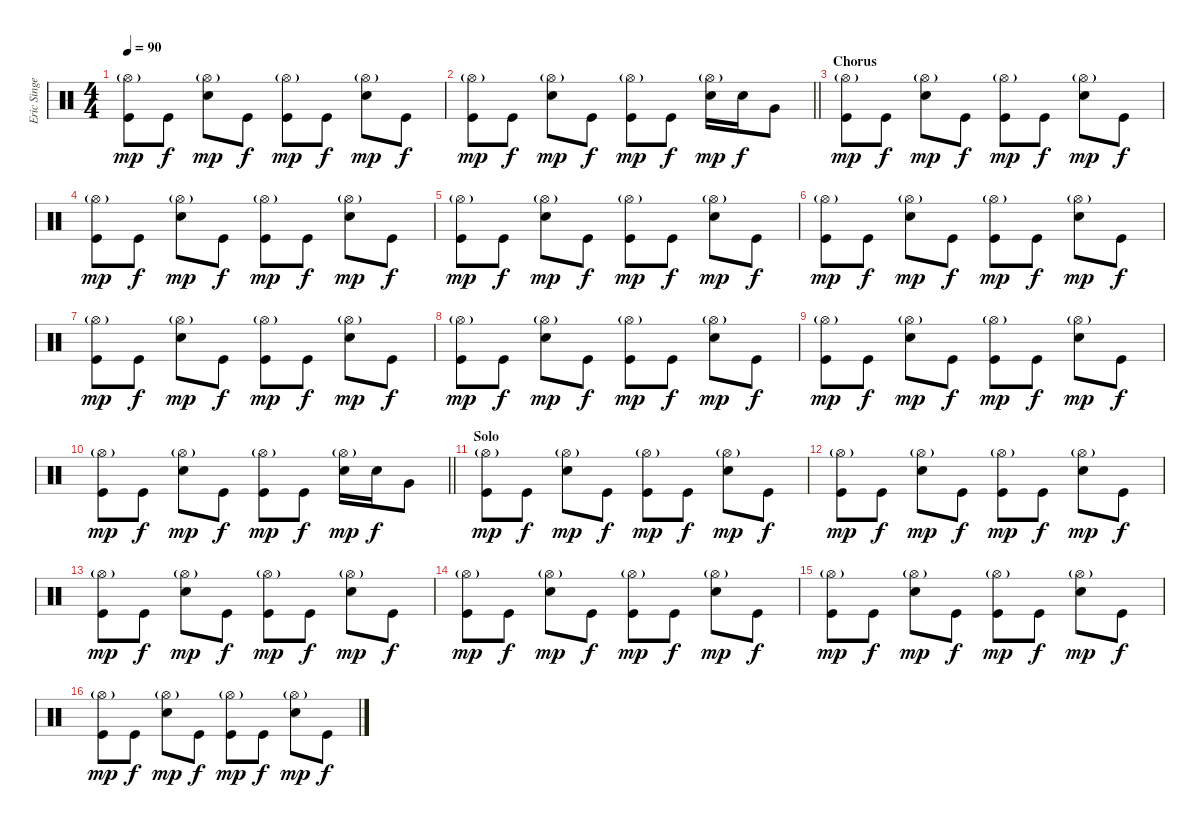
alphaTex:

\track ("Eric Singer (Drums)" "Eric Singe") {instrument percussion}
\staff {score}
\articulation defaults
\ts (4 4)
\tempo 90
\clef neutral
\ks c
("Hi-Hat (open)"{g} "Kick (hit)").8{dy mp} "Kick (hit)".8{dy f} ("Hi-Hat (open)"{g} "Snare (hit) 2").8{dy mp} "Kick (hit)".8{dy f} ("Hi-Hat (open)"{g} "Kick (hit)").8{dy mp} "Kick (hit)".8{dy f} ("Hi-Hat (open)"{g} "Snare (hit) 2").8{dy mp} "Kick (hit)".8{dy f} |
\barLineRight lightlight
("Hi-Hat (open)"{g} "Kick (hit)").8{dy mp} "Kick (hit)".8{dy f} ("Hi-Hat (open)"{g} "Snare (hit) 2").8{dy mp} "Kick (hit)".8{dy f} ("Hi-Hat (open)"{g} "Kick (hit)").8{dy mp} "Kick (hit)".8{dy f} ("Hi-Hat (open)"{g} "Snare (hit) 2").16{dy mp} "Snare (hit) 2".16{dy f} "Very Low Tom (hit)".8 |
\section ("" "Chorus")
("Hi-Hat (open)"{g} "Kick (hit)").8{dy mp} "Kick (hit)".8{dy f} ("Hi-Hat (open)"{g} "Snare (hit) 2").8{dy mp} "Kick (hit)".8{dy f} ("Hi-Hat (open)"{g} "Kick (hit)").8{dy mp} "Kick (hit)".8{dy f} ("Hi-Hat (open)"{g} "Snare (hit) 2").8{dy mp} "Kick (hit)".8{dy f} |
("Hi-Hat (open)"{g} "Kick (hit)").8{dy mp} "Kick (hit)".8{dy f} ("Hi-Hat (open)"{g} "Snare (hit) 2").8{dy mp} "Kick (hit)".8{dy f} ("Hi-Hat (open)"{g} "Kick (hit)").8{dy mp} "Kick (hit)".8{dy f} ("Hi-Hat (open)"{g} "Snare (hit) 2").8{dy mp} "Kick (hit)".8{dy f} |
("Hi-Hat (open)"{g} "Kick (hit)").8{dy mp} "Kick (hit)".8{dy f} ("Hi-Hat (open)"{g} "Snare (hit) 2").8{dy mp} "Kick (hit)".8{dy f} ("Hi-Hat (open)"{g} "Kick (hit)").8{dy mp} "Kick (hit)".8{dy f} ("Hi-Hat (open)"{g} "Snare (hit) 2").8{dy mp} "Kick (hit)".8{dy f} |
("Hi-Hat (open)"{g} "Kick (hit)").8{dy mp} "Kick (hit)".8{dy f} ("Hi-Hat (open)"{g} "Snare (hit) 2").8{dy mp} "Kick (hit)".8{dy f} ("Hi-Hat (open)"{g} "Kick (hit)").8{dy mp} "Kick (hit)".8{dy f} ("Hi-Hat (open)"{g} "Snare (hit) 2").8{dy mp} "Kick (hit)".8{dy f} |
("Hi-Hat (open)"{g} "Kick (hit)").8{dy mp} "Kick (hit)".8{dy f} ("Hi-Hat (open)"{g} "Snare (hit) 2").8{dy mp} "Kick (hit)".8{dy f} ("Hi-Hat (open)"{g} "Kick (hit)").8{dy mp} "Kick (hit)".8{dy f} ("Hi-Hat (open)"{g} "Snare (hit) 2").8{dy mp} "Kick (hit)".8{dy f} |
("Hi-Hat (open)"{g} "Kick (hit)").8{dy mp} "Kick (hit)".8{dy f} ("Hi-Hat (open)"{g} "Snare (hit) 2").8{dy mp} "Kick (hit)".8{dy f} ("Hi-Hat (open)"{g} "Kick (hit)").8{dy mp} "Kick (hit)".8{dy f} ("Hi-Hat (open)"{g} "Snare (hit) 2").8{dy mp} "Kick (hit)".8{dy f} |
("Hi-Hat (open)"{g} "Kick (hit)").8{dy mp} "Kick (hit)".8{dy f} ("Hi-Hat (open)"{g} "Snare (hit) 2").8{dy mp} "Kick (hit)".8{dy f} ("Hi-Hat (open)"{g} "Kick (hit)").8{dy mp} "Kick (hit)".8{dy f} ("Hi-Hat (open)"{g} "Snare (hit) 2").8{dy mp} "Kick (hit)".8{dy f} |
\barLineRight lightlight
("Hi-Hat (open)"{g} "Kick (hit)").8{dy mp} "Kick (hit)".8{dy f} ("Hi-Hat (open)"{g} "Snare (hit) 2").8{dy mp} "Kick (hit)".8{dy f} ("Hi-Hat (open)"{g} "Kick (hit)").8{dy mp} "Kick (hit)".8{dy f} ("Hi-Hat (open)"{g} "Snare (hit) 2").16{dy mp} "Snare (hit) 2".16{dy f} "Very Low Tom (hit)".8 |
\section ("" "Solo")
("Hi-Hat (open)"{g} "Kick (hit)").8{dy mp} "Kick (hit)".8{dy f} ("Hi-Hat (open)"{g} "Snare (hit) 2").8{dy mp} "Kick (hit)".8{dy f} ("Hi-Hat (open)"{g} "Kick (hit)").8{dy mp} "Kick (hit)".8{dy f} ("Hi-Hat (open)"{g} "Snare (hit) 2").8{dy mp} "Kick (hit)".8{dy f} |
("Hi-Hat (open)"{g} "Kick (hit)").8{dy mp} "Kick (hit)".8{dy f} ("Hi-Hat (open)"{g} "Snare (hit) 2").8{dy mp} "Kick (hit)".8{dy f} ("Hi-Hat (open)"{g} "Kick (hit)").8{dy mp} "Kick (hit)".8{dy f} ("Hi-Hat (open)"{g} "Snare (hit) 2").8{dy mp} "Kick (hit)".8{dy f} |
("Hi-Hat (open)"{g} "Kick (hit)").8{dy mp} "Kick (hit)".8{dy f} ("Hi-Hat (open)"{g} "Snare (hit) 2").8{dy mp} "Kick (hit)".8{dy f} ("Hi-Hat (open)"{g} "Kick (hit)").8{dy mp} "Kick (hit)".8{dy f} ("Hi-Hat (open)"{g} "Snare (hit) 2").8{dy mp} "Kick (hit)".8{dy f} |
("Hi-Hat (open)"{g} "Kick (hit)").8{dy mp} "Kick (hit)".8{dy f} ("Hi-Hat (open)"{g} "Snare (hit) 2").8{dy mp} "Kick (hit)".8{dy f} ("Hi-Hat (open)"{g} "Kick (hit)").8{dy mp} "Kick (hit)".8{dy f} ("Hi-Hat (open)"{g} "Snare (hit) 2").8{dy mp} "Kick (hit)".8{dy f} |
("Hi-Hat (open)"{g} "Kick (hit)").8{dy mp} "Kick (hit)".8{dy f} ("Hi-Hat (open)"{g} "Snare (hit) 2").8{dy mp} "Kick (hit)".8{dy f} ("Hi-Hat (open)"{g} "Kick (hit)").8{dy mp} "Kick (hit)".8{dy f} ("Hi-Hat (open)"{g} "Snare (hit) 2").8{dy mp} "Kick (hit)".8{dy f} |
("Hi-Hat (open)"{g} "Kick (hit)").8{dy mp} "Kick (hit)".8{dy f} ("Hi-Hat (open)"{g} "Snare (hit) 2").8{dy mp} "Kick (hit)".8{dy f} ("Hi-Hat (open)"{g} "Kick (hit)").8{dy mp} "Kick (hit)".8{dy f} ("Hi-Hat (open)"{g} "Snare (hit) 2").8{dy mp} "Kick (hit)".8{dy f}
